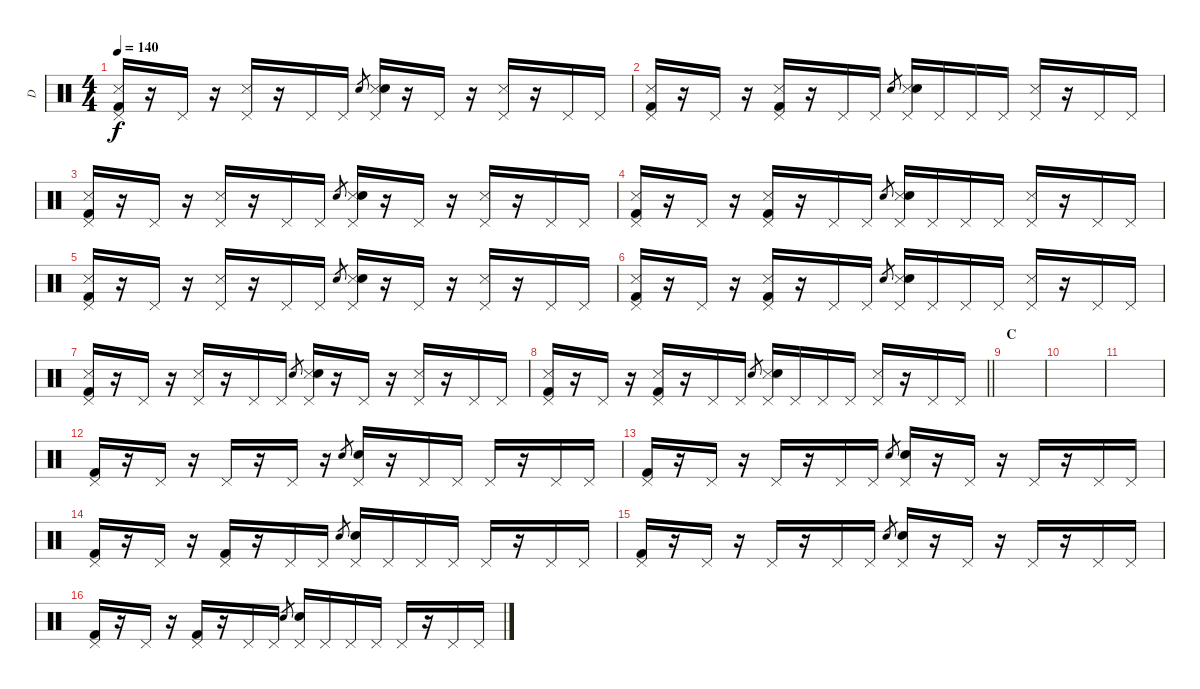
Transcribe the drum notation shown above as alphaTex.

\track ("D" "D") {instrument percussion}
\staff {score}
\articulation defaults
\ts (4 4)
\tempo 140
\clef neutral
\ks c
("Metronome (hit)" "Kick (hit) 2" "Pedal Hi-Hat (hit)").16{dy f} r.16 "Pedal Hi-Hat (hit)".16 r.16 ("Metronome (hit)" "Pedal Hi-Hat (hit)").16 r.16 "Pedal Hi-Hat (hit)".16 "Pedal Hi-Hat (hit)".16 "Electric Snare (hit)".8{gr} ("Metronome (hit)" "Electric Snare (hit)" "Pedal Hi-Hat (hit)").16 r.16 "Pedal Hi-Hat (hit)".16 r.16 ("Metronome (hit)" "Pedal Hi-Hat (hit)").16 r.16 "Pedal Hi-Hat (hit)".16 "Pedal Hi-Hat (hit)".16 |
("Metronome (hit)" "Kick (hit) 2" "Pedal Hi-Hat (hit)").16 r.16 "Pedal Hi-Hat (hit)".16 r.16 ("Metronome (hit)" "Kick (hit) 2" "Pedal Hi-Hat (hit)").16 r.16 "Pedal Hi-Hat (hit)".16 "Pedal Hi-Hat (hit)".16 "Electric Snare (hit)".8{gr} ("Metronome (hit)" "Electric Snare (hit)" "Pedal Hi-Hat (hit)").16 "Pedal Hi-Hat (hit)".16 "Pedal Hi-Hat (hit)".16 "Pedal Hi-Hat (hit)".16 ("Metronome (hit)" "Pedal Hi-Hat (hit)").16 r.16 "Pedal Hi-Hat (hit)".16 "Pedal Hi-Hat (hit)".16 |
("Metronome (hit)" "Kick (hit) 2" "Pedal Hi-Hat (hit)").16 r.16 "Pedal Hi-Hat (hit)".16 r.16 ("Metronome (hit)" "Pedal Hi-Hat (hit)").16 r.16 "Pedal Hi-Hat (hit)".16 "Pedal Hi-Hat (hit)".16 "Electric Snare (hit)".8{gr} ("Metronome (hit)" "Electric Snare (hit)" "Pedal Hi-Hat (hit)").16 r.16 "Pedal Hi-Hat (hit)".16 r.16 ("Metronome (hit)" "Pedal Hi-Hat (hit)").16 r.16 "Pedal Hi-Hat (hit)".16 "Pedal Hi-Hat (hit)".16 |
("Metronome (hit)" "Kick (hit) 2" "Pedal Hi-Hat (hit)").16 r.16 "Pedal Hi-Hat (hit)".16 r.16 ("Metronome (hit)" "Kick (hit) 2" "Pedal Hi-Hat (hit)").16 r.16 "Pedal Hi-Hat (hit)".16 "Pedal Hi-Hat (hit)".16 "Electric Snare (hit)".8{gr} ("Metronome (hit)" "Electric Snare (hit)" "Pedal Hi-Hat (hit)").16 "Pedal Hi-Hat (hit)".16 "Pedal Hi-Hat (hit)".16 "Pedal Hi-Hat (hit)".16 ("Metronome (hit)" "Pedal Hi-Hat (hit)").16 r.16 "Pedal Hi-Hat (hit)".16 "Pedal Hi-Hat (hit)".16 |
("Metronome (hit)" "Kick (hit) 2" "Pedal Hi-Hat (hit)").16 r.16 "Pedal Hi-Hat (hit)".16 r.16 ("Metronome (hit)" "Pedal Hi-Hat (hit)").16 r.16 "Pedal Hi-Hat (hit)".16 "Pedal Hi-Hat (hit)".16 "Electric Snare (hit)".8{gr} ("Metronome (hit)" "Electric Snare (hit)" "Pedal Hi-Hat (hit)").16 r.16 "Pedal Hi-Hat (hit)".16 r.16 ("Metronome (hit)" "Pedal Hi-Hat (hit)").16 r.16 "Pedal Hi-Hat (hit)".16 "Pedal Hi-Hat (hit)".16 |
("Metronome (hit)" "Kick (hit) 2" "Pedal Hi-Hat (hit)").16 r.16 "Pedal Hi-Hat (hit)".16 r.16 ("Metronome (hit)" "Kick (hit) 2" "Pedal Hi-Hat (hit)").16 r.16 "Pedal Hi-Hat (hit)".16 "Pedal Hi-Hat (hit)".16 "Electric Snare (hit)".8{gr} ("Metronome (hit)" "Electric Snare (hit)" "Pedal Hi-Hat (hit)").16 "Pedal Hi-Hat (hit)".16 "Pedal Hi-Hat (hit)".16 "Pedal Hi-Hat (hit)".16 ("Metronome (hit)" "Pedal Hi-Hat (hit)").16 r.16 "Pedal Hi-Hat (hit)".16 "Pedal Hi-Hat (hit)".16 |
("Metronome (hit)" "Kick (hit) 2" "Pedal Hi-Hat (hit)").16 r.16 "Pedal Hi-Hat (hit)".16 r.16 ("Metronome (hit)" "Pedal Hi-Hat (hit)").16 r.16 "Pedal Hi-Hat (hit)".16 "Pedal Hi-Hat (hit)".16 "Electric Snare (hit)".8{gr} ("Metronome (hit)" "Electric Snare (hit)" "Pedal Hi-Hat (hit)").16 r.16 "Pedal Hi-Hat (hit)".16 r.16 ("Metronome (hit)" "Pedal Hi-Hat (hit)").16 r.16 "Pedal Hi-Hat (hit)".16 "Pedal Hi-Hat (hit)".16 |
\barLineRight lightlight
("Metronome (hit)" "Kick (hit) 2" "Pedal Hi-Hat (hit)").16 r.16 "Pedal Hi-Hat (hit)".16 r.16 ("Metronome (hit)" "Kick (hit) 2" "Pedal Hi-Hat (hit)").16 r.16 "Pedal Hi-Hat (hit)".16 "Pedal Hi-Hat (hit)".16 "Electric Snare (hit)".8{gr} ("Metronome (hit)" "Electric Snare (hit)" "Pedal Hi-Hat (hit)").16 "Pedal Hi-Hat (hit)".16 "Pedal Hi-Hat (hit)".16 "Pedal Hi-Hat (hit)".16 ("Metronome (hit)" "Pedal Hi-Hat (hit)").16 r.16 "Pedal Hi-Hat (hit)".16 "Pedal Hi-Hat (hit)".16 |
\section ("" "C")
|
|
|
("Kick (hit) 2" "Pedal Hi-Hat (hit)").16 r.16 "Pedal Hi-Hat (hit)".16 r.16 "Pedal Hi-Hat (hit)".16 r.16 "Pedal Hi-Hat (hit)".16 r.16 "Electric Snare (hit)".8{gr} ("Electric Snare (hit)" "Pedal Hi-Hat (hit)").16 r.16 "Pedal Hi-Hat (hit)".16 "Pedal Hi-Hat (hit)".16 "Pedal Hi-Hat (hit)".16 r.16 "Pedal Hi-Hat (hit)".16 "Pedal Hi-Hat (hit)".16 |
("Kick (hit) 2" "Pedal Hi-Hat (hit)").16 r.16 "Pedal Hi-Hat (hit)".16 r.16 "Pedal Hi-Hat (hit)".16 r.16 "Pedal Hi-Hat (hit)".16 "Pedal Hi-Hat (hit)".16 "Electric Snare (hit)".8{gr} ("Electric Snare (hit)" "Pedal Hi-Hat (hit)").16 r.16 "Pedal Hi-Hat (hit)".16 r.16 "Pedal Hi-Hat (hit)".16 r.16 "Pedal Hi-Hat (hit)".16 "Pedal Hi-Hat (hit)".16 |
("Kick (hit) 2" "Pedal Hi-Hat (hit)").16 r.16 "Pedal Hi-Hat (hit)".16 r.16 ("Kick (hit) 2" "Pedal Hi-Hat (hit)").16 r.16 "Pedal Hi-Hat (hit)".16 "Pedal Hi-Hat (hit)".16 "Electric Snare (hit)".8{gr} ("Electric Snare (hit)" "Pedal Hi-Hat (hit)").16 "Pedal Hi-Hat (hit)".16 "Pedal Hi-Hat (hit)".16 "Pedal Hi-Hat (hit)".16 "Pedal Hi-Hat (hit)".16 r.16 "Pedal Hi-Hat (hit)".16 "Pedal Hi-Hat (hit)".16 |
("Kick (hit) 2" "Pedal Hi-Hat (hit)").16 r.16 "Pedal Hi-Hat (hit)".16 r.16 "Pedal Hi-Hat (hit)".16 r.16 "Pedal Hi-Hat (hit)".16 "Pedal Hi-Hat (hit)".16 "Electric Snare (hit)".8{gr} ("Electric Snare (hit)" "Pedal Hi-Hat (hit)").16 r.16 "Pedal Hi-Hat (hit)".16 r.16 "Pedal Hi-Hat (hit)".16 r.16 "Pedal Hi-Hat (hit)".16 "Pedal Hi-Hat (hit)".16 |
("Kick (hit) 2" "Pedal Hi-Hat (hit)").16 r.16 "Pedal Hi-Hat (hit)".16 r.16 ("Kick (hit) 2" "Pedal Hi-Hat (hit)").16 r.16 "Pedal Hi-Hat (hit)".16 "Pedal Hi-Hat (hit)".16 "Electric Snare (hit)".8{gr} ("Electric Snare (hit)" "Pedal Hi-Hat (hit)").16 "Pedal Hi-Hat (hit)".16 "Pedal Hi-Hat (hit)".16 "Pedal Hi-Hat (hit)".16 "Pedal Hi-Hat (hit)".16 r.16 "Pedal Hi-Hat (hit)".16 "Pedal Hi-Hat (hit)".16
